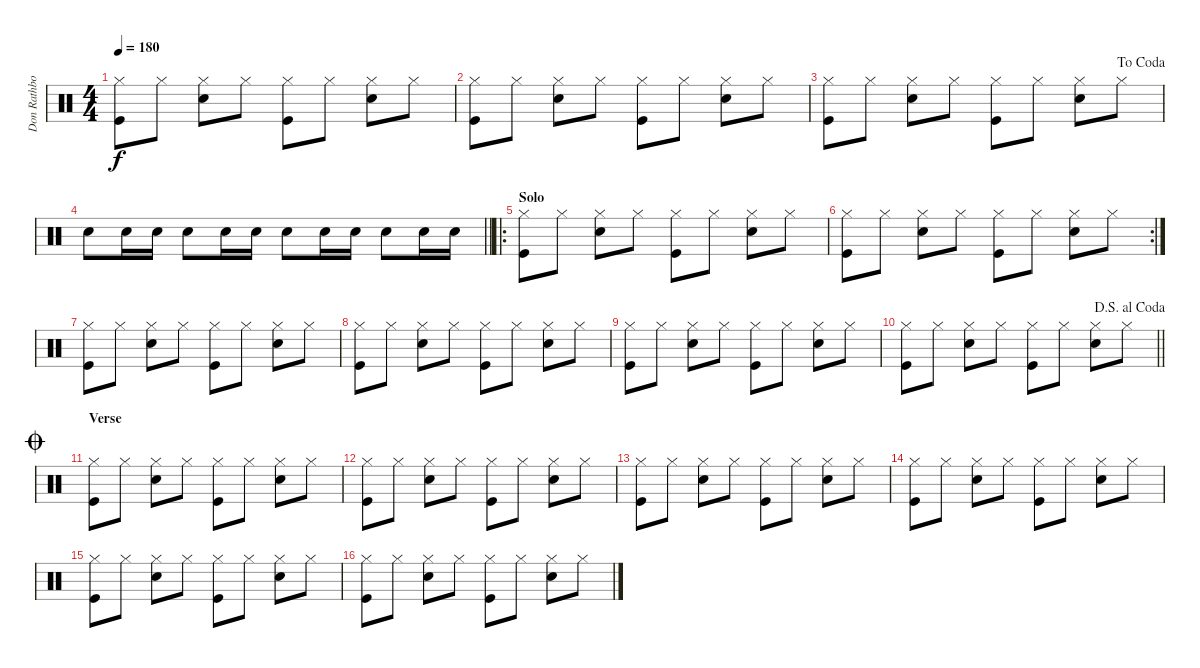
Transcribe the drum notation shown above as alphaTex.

\track ("Don Rathbone" "Don Rathbo") {instrument percussion}
\staff {score}
\articulation defaults
\ts (4 4)
\tempo 180
\clef neutral
\ks c
("Hi-Hat (closed)" "Kick (hit)").8{dy f} "Hi-Hat (closed)".8 ("Hi-Hat (closed)" "Snare (hit) 2").8 "Hi-Hat (closed)".8 ("Hi-Hat (closed)" "Kick (hit)").8 "Hi-Hat (closed)".8 ("Hi-Hat (closed)" "Snare (hit) 2").8 "Hi-Hat (closed)".8 |
("Hi-Hat (closed)" "Kick (hit)").8 "Hi-Hat (closed)".8 ("Hi-Hat (closed)" "Snare (hit) 2").8 "Hi-Hat (closed)".8 ("Hi-Hat (closed)" "Kick (hit)").8 "Hi-Hat (closed)".8 ("Hi-Hat (closed)" "Snare (hit) 2").8 "Hi-Hat (closed)".8 |
\jump dacoda
("Hi-Hat (closed)" "Kick (hit)").8 "Hi-Hat (closed)".8 ("Hi-Hat (closed)" "Snare (hit) 2").8 "Hi-Hat (closed)".8 ("Hi-Hat (closed)" "Kick (hit)").8 "Hi-Hat (closed)".8 ("Hi-Hat (closed)" "Snare (hit) 2").8 "Hi-Hat (closed)".8 |
\barLineRight lightlight "Snare (hit) 2".8 "Snare (hit) 2".16 "Snare (hit) 2".16 "Snare (hit) 2".8 "Snare (hit) 2".16 "Snare (hit) 2".16 "Snare (hit) 2".8 "Snare (hit) 2".16 "Snare (hit) 2".16 "Snare (hit) 2".8 "Snare (hit) 2".16 "Snare (hit) 2".16
|
\ro
\section ("" "Solo")
("Hi-Hat (closed)" "Kick (hit)").8 "Hi-Hat (closed)".8 ("Hi-Hat (closed)" "Snare (hit) 2").8 "Hi-Hat (closed)".8 ("Hi-Hat (closed)" "Kick (hit)").8 "Hi-Hat (closed)".8 ("Hi-Hat (closed)" "Snare (hit) 2").8 "Hi-Hat (closed)".8 |
\rc 2
("Hi-Hat (closed)" "Kick (hit)").8 "Hi-Hat (closed)".8 ("Hi-Hat (closed)" "Snare (hit) 2").8 "Hi-Hat (closed)".8 ("Hi-Hat (closed)" "Kick (hit)").8 "Hi-Hat (closed)".8 ("Hi-Hat (closed)" "Snare (hit) 2").8 "Hi-Hat (closed)".8 |
("Hi-Hat (closed)" "Kick (hit)").8 "Hi-Hat (closed)".8 ("Hi-Hat (closed)" "Snare (hit) 2").8 "Hi-Hat (closed)".8 ("Hi-Hat (closed)" "Kick (hit)").8 "Hi-Hat (closed)".8 ("Hi-Hat (closed)" "Snare (hit) 2").8 "Hi-Hat (closed)".8 |
("Hi-Hat (closed)" "Kick (hit)").8 "Hi-Hat (closed)".8 ("Hi-Hat (closed)" "Snare (hit) 2").8 "Hi-Hat (closed)".8 ("Hi-Hat (closed)" "Kick (hit)").8 "Hi-Hat (closed)".8 ("Hi-Hat (closed)" "Snare (hit) 2").8 "Hi-Hat (closed)".8 |
("Hi-Hat (closed)" "Kick (hit)").8 "Hi-Hat (closed)".8 ("Hi-Hat (closed)" "Snare (hit) 2").8 "Hi-Hat (closed)".8 ("Hi-Hat (closed)" "Kick (hit)").8 "Hi-Hat (closed)".8 ("Hi-Hat (closed)" "Snare (hit) 2").8 "Hi-Hat (closed)".8 |
\jump dalsegnoalcoda
\barLineRight lightlight
("Hi-Hat (closed)" "Kick (hit)").8 "Hi-Hat (closed)".8 ("Hi-Hat (closed)" "Snare (hit) 2").8 "Hi-Hat (closed)".8 ("Hi-Hat (closed)" "Kick (hit)").8 "Hi-Hat (closed)".8 ("Hi-Hat (closed)" "Snare (hit) 2").8 "Hi-Hat (closed)".8 |
\section ("" "Verse")
\jump coda
("Hi-Hat (closed)" "Kick (hit)").8 "Hi-Hat (closed)".8 ("Hi-Hat (closed)" "Snare (hit) 2").8 "Hi-Hat (closed)".8 ("Hi-Hat (closed)" "Kick (hit)").8 "Hi-Hat (closed)".8 ("Hi-Hat (closed)" "Snare (hit) 2").8 "Hi-Hat (closed)".8 |
("Hi-Hat (closed)" "Kick (hit)").8 "Hi-Hat (closed)".8 ("Hi-Hat (closed)" "Snare (hit) 2").8 "Hi-Hat (closed)".8 ("Hi-Hat (closed)" "Kick (hit)").8 "Hi-Hat (closed)".8 ("Hi-Hat (closed)" "Snare (hit) 2").8 "Hi-Hat (closed)".8 |
("Hi-Hat (closed)" "Kick (hit)").8 "Hi-Hat (closed)".8 ("Hi-Hat (closed)" "Snare (hit) 2").8 "Hi-Hat (closed)".8 ("Hi-Hat (closed)" "Kick (hit)").8 "Hi-Hat (closed)".8 ("Hi-Hat (closed)" "Snare (hit) 2").8 "Hi-Hat (closed)".8 |
("Hi-Hat (closed)" "Kick (hit)").8 "Hi-Hat (closed)".8 ("Hi-Hat (closed)" "Snare (hit) 2").8 "Hi-Hat (closed)".8 ("Hi-Hat (closed)" "Kick (hit)").8 "Hi-Hat (closed)".8 ("Hi-Hat (closed)" "Snare (hit) 2").8 "Hi-Hat (closed)".8 |
("Hi-Hat (closed)" "Kick (hit)").8 "Hi-Hat (closed)".8 ("Hi-Hat (closed)" "Snare (hit) 2").8 "Hi-Hat (closed)".8 ("Hi-Hat (closed)" "Kick (hit)").8 "Hi-Hat (closed)".8 ("Hi-Hat (closed)" "Snare (hit) 2").8 "Hi-Hat (closed)".8 |
("Hi-Hat (closed)" "Kick (hit)").8 "Hi-Hat (closed)".8 ("Hi-Hat (closed)" "Snare (hit) 2").8 "Hi-Hat (closed)".8 ("Hi-Hat (closed)" "Kick (hit)").8 "Hi-Hat (closed)".8 ("Hi-Hat (closed)" "Snare (hit) 2").8 "Hi-Hat (closed)".8
